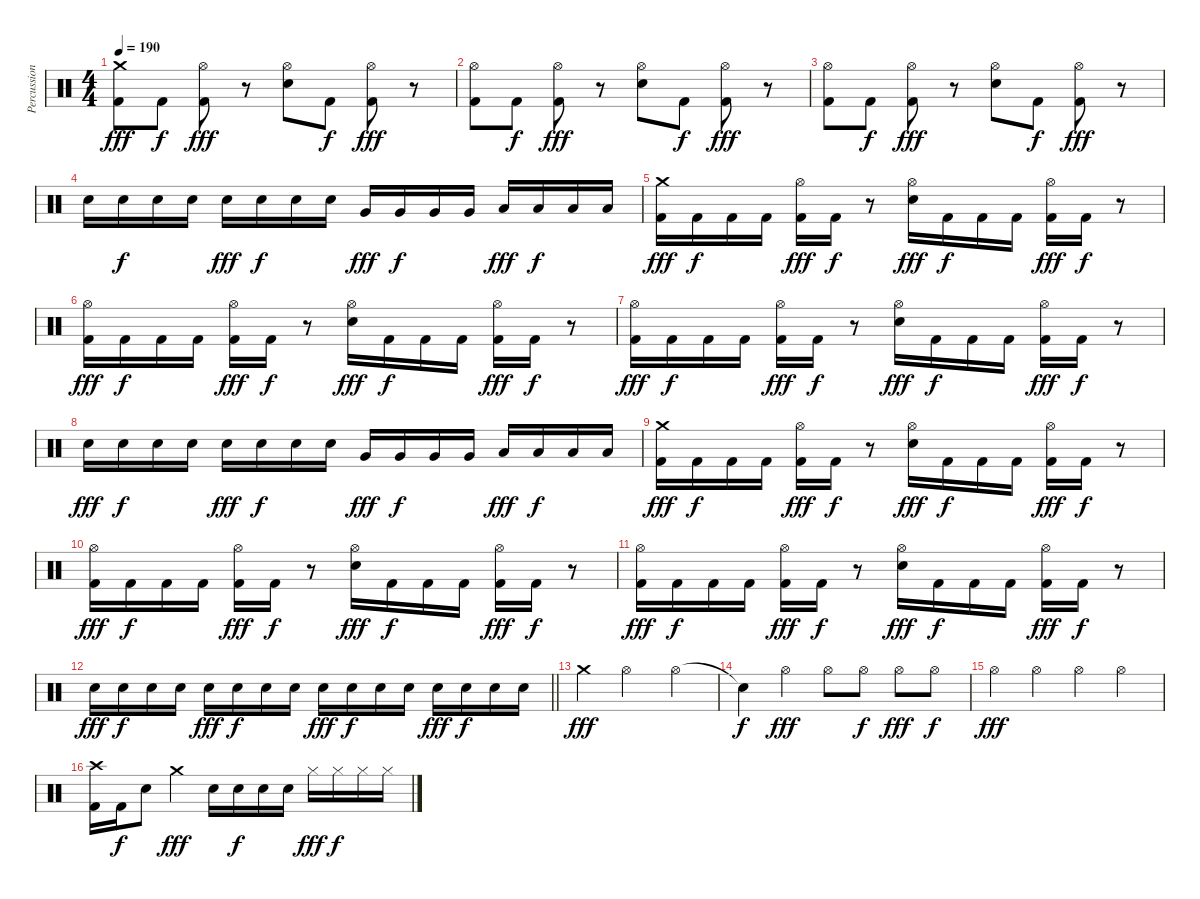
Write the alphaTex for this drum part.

\track ("Percussions" "Percussion") {instrument percussion}
\staff {score}
\articulation defaults
\ts (4 4)
\tempo 190
\clef neutral
\ks c
("Crash medium (hit)" "Kick (hit) 2").8{dy fff} "Kick (hit) 2".8{dy f} ("Hi-Hat (open)" "Kick (hit) 2").8{dy fff} r.8 ("Hi-Hat (open)" "Snare (hit) 2").8 "Kick (hit) 2".8{dy f} ("Hi-Hat (open)" "Kick (hit) 2").8{dy fff} r.8 |
("Hi-Hat (open)" "Kick (hit) 2").8 "Kick (hit) 2".8{dy f} ("Hi-Hat (open)" "Kick (hit) 2").8{dy fff} r.8 ("Hi-Hat (open)" "Snare (hit) 2").8 "Kick (hit) 2".8{dy f} ("Hi-Hat (open)" "Kick (hit) 2").8{dy fff} r.8 |
("Hi-Hat (open)" "Kick (hit) 2").8 "Kick (hit) 2".8{dy f} ("Hi-Hat (open)" "Kick (hit) 2").8{dy fff} r.8 ("Hi-Hat (open)" "Snare (hit) 2").8 "Kick (hit) 2".8{dy f} ("Hi-Hat (open)" "Kick (hit) 2").8{dy fff} r.8 |
"Snare (hit) 2".16 "Snare (hit) 2".16{dy f} "Snare (hit) 2".16 "Snare (hit) 2".16 "Snare (hit) 2".16{dy fff} "Snare (hit) 2".16{dy f} "Snare (hit) 2".16 "Snare (hit) 2".16 "Very Low Tom (hit)".16{dy fff} "Very Low Tom (hit)".16{dy f} "Very Low Tom (hit)".16 "Very Low Tom (hit)".16 "Low Floor Tom (hit)".16{dy fff} "Low Floor Tom (hit)".16{dy f} "Low Floor Tom (hit)".16 "Low Floor Tom (hit)".16 |
("Crash medium (hit)" "Kick (hit) 2").16{dy fff} "Kick (hit) 2".16{dy f} "Kick (hit) 2".16 "Kick (hit) 2".16 ("Hi-Hat (open)" "Kick (hit) 2").16{dy fff} "Kick (hit) 2".16{dy f} r.8 ("Hi-Hat (open)" "Snare (hit) 2").16{dy fff} "Kick (hit) 2".16{dy f} "Kick (hit) 2".16 "Kick (hit) 2".16 ("Hi-Hat (open)" "Kick (hit) 2").16{dy fff} "Kick (hit) 2".16{dy f} r.8 |
("Hi-Hat (open)" "Kick (hit) 2").16{dy fff} "Kick (hit) 2".16{dy f} "Kick (hit) 2".16 "Kick (hit) 2".16 ("Hi-Hat (open)" "Kick (hit) 2").16{dy fff} "Kick (hit) 2".16{dy f} r.8 ("Hi-Hat (open)" "Snare (hit) 2").16{dy fff} "Kick (hit) 2".16{dy f} "Kick (hit) 2".16 "Kick (hit) 2".16 ("Hi-Hat (open)" "Kick (hit) 2").16{dy fff} "Kick (hit) 2".16{dy f} r.8 |
("Hi-Hat (open)" "Kick (hit) 2").16{dy fff} "Kick (hit) 2".16{dy f} "Kick (hit) 2".16 "Kick (hit) 2".16 ("Hi-Hat (open)" "Kick (hit) 2").16{dy fff} "Kick (hit) 2".16{dy f} r.8 ("Hi-Hat (open)" "Snare (hit) 2").16{dy fff} "Kick (hit) 2".16{dy f} "Kick (hit) 2".16 "Kick (hit) 2".16 ("Hi-Hat (open)" "Kick (hit) 2").16{dy fff} "Kick (hit) 2".16{dy f} r.8 |
"Snare (hit) 2".16{dy fff} "Snare (hit) 2".16{dy f} "Snare (hit) 2".16 "Snare (hit) 2".16 "Snare (hit) 2".16{dy fff} "Snare (hit) 2".16{dy f} "Snare (hit) 2".16 "Snare (hit) 2".16 "Very Low Tom (hit)".16{dy fff} "Very Low Tom (hit)".16{dy f} "Very Low Tom (hit)".16 "Very Low Tom (hit)".16 "Low Floor Tom (hit)".16{dy fff} "Low Floor Tom (hit)".16{dy f} "Low Floor Tom (hit)".16 "Low Floor Tom (hit)".16 |
("Crash medium (hit)" "Kick (hit) 2").16{dy fff} "Kick (hit) 2".16{dy f} "Kick (hit) 2".16 "Kick (hit) 2".16 ("Hi-Hat (open)" "Kick (hit) 2").16{dy fff} "Kick (hit) 2".16{dy f} r.8 ("Hi-Hat (open)" "Snare (hit) 2").16{dy fff} "Kick (hit) 2".16{dy f} "Kick (hit) 2".16 "Kick (hit) 2".16 ("Hi-Hat (open)" "Kick (hit) 2").16{dy fff} "Kick (hit) 2".16{dy f} r.8 |
("Hi-Hat (open)" "Kick (hit) 2").16{dy fff} "Kick (hit) 2".16{dy f} "Kick (hit) 2".16 "Kick (hit) 2".16 ("Hi-Hat (open)" "Kick (hit) 2").16{dy fff} "Kick (hit) 2".16{dy f} r.8 ("Hi-Hat (open)" "Snare (hit) 2").16{dy fff} "Kick (hit) 2".16{dy f} "Kick (hit) 2".16 "Kick (hit) 2".16 ("Hi-Hat (open)" "Kick (hit) 2").16{dy fff} "Kick (hit) 2".16{dy f} r.8 |
("Hi-Hat (open)" "Kick (hit) 2").16{dy fff} "Kick (hit) 2".16{dy f} "Kick (hit) 2".16 "Kick (hit) 2".16 ("Hi-Hat (open)" "Kick (hit) 2").16{dy fff} "Kick (hit) 2".16{dy f} r.8 ("Hi-Hat (open)" "Snare (hit) 2").16{dy fff} "Kick (hit) 2".16{dy f} "Kick (hit) 2".16 "Kick (hit) 2".16 ("Hi-Hat (open)" "Kick (hit) 2").16{dy fff} "Kick (hit) 2".16{dy f} r.8 |
\barLineRight lightlight "Snare (hit) 2".16{dy fff} "Snare (hit) 2".16{dy f} "Snare (hit) 2".16 "Snare (hit) 2".16 "Snare (hit) 2".16{dy fff} "Snare (hit) 2".16{dy f} "Snare (hit) 2".16 "Snare (hit) 2".16 "Snare (hit) 2".16{dy fff} "Snare (hit) 2".16{dy f} "Snare (hit) 2".16 "Snare (hit) 2".16 "Snare (hit) 2".16{dy fff} "Snare (hit) 2".16{dy f} "Snare (hit) 2".16 "Snare (hit) 2".16
|
"Crash medium (hit)".4{dy fff} "Hi-Hat (open)".2 "Hi-Hat (open)".4 |
"Snare (hit)"{t}.4{dy f} "Hi-Hat (open)".4{dy fff} "Hi-Hat (open)".8 "Hi-Hat (open)".8{dy f} "Hi-Hat (open)".8{dy fff} "Hi-Hat (open)".8{dy f} |
"Hi-Hat (open)".4{dy fff} "Hi-Hat (open)".4 "Hi-Hat (open)".4 "Hi-Hat (open)".4 |
("Crash high (hit)" "Kick (hit) 2").16 "Kick (hit) 2".16{dy f} "Snare (hit) 2".8 "Crash medium (hit)".4{dy fff} "Snare (hit) 2".16 "Snare (hit) 2".16{dy f} "Snare (hit) 2".16 "Snare (hit) 2".16 "Hi-Hat (closed)".16{dy fff} "Hi-Hat (closed)".16{dy f} "Hi-Hat (closed)".16 "Hi-Hat (closed)".16
